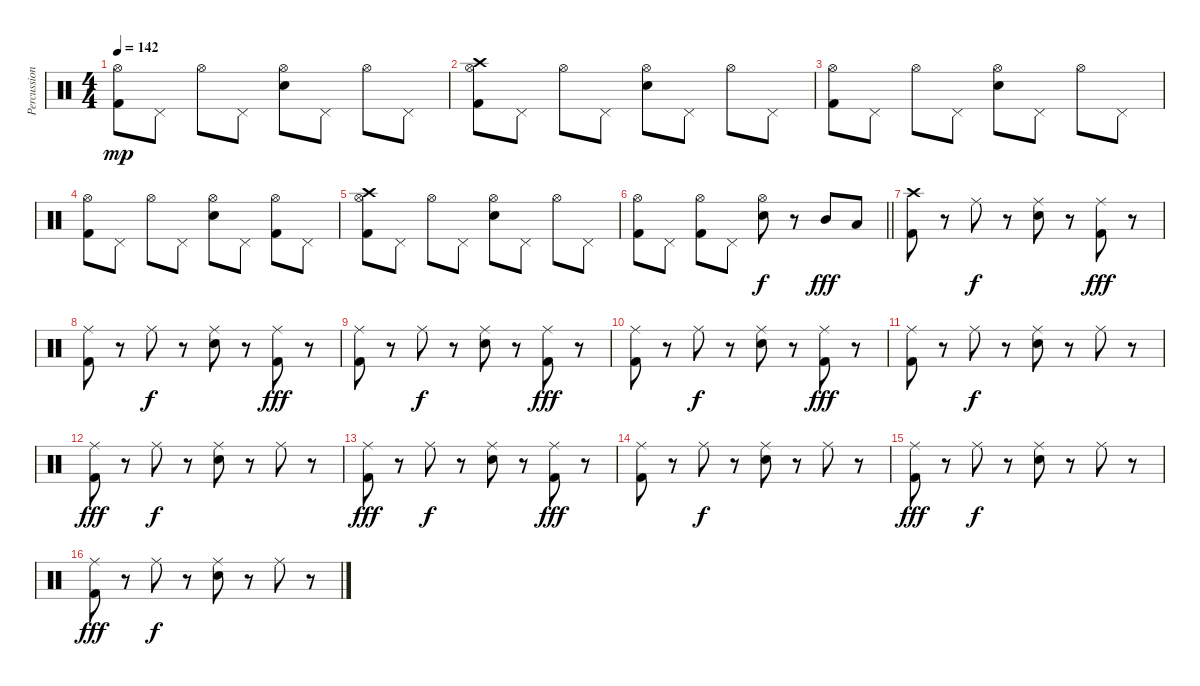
\track ("Percussion" "Percussion") {instrument percussion}
\staff {score}
\articulation defaults
\ts (4 4)
\tempo 142
\clef neutral
\ks c
("Kick (hit) 2" "Hi-Hat (open)").8{dy mp} "Pedal Hi-Hat (hit)".8 "Hi-Hat (open)".8 "Pedal Hi-Hat (hit)".8 ("Electric Snare (hit)" "Hi-Hat (open)").8 "Pedal Hi-Hat (hit)".8 "Hi-Hat (open)".8 "Pedal Hi-Hat (hit)".8 |
("Kick (hit) 2" "Hi-Hat (open)" "Crash high (hit)").8 "Pedal Hi-Hat (hit)".8 "Hi-Hat (open)".8 "Pedal Hi-Hat (hit)".8 ("Electric Snare (hit)" "Hi-Hat (open)").8 "Pedal Hi-Hat (hit)".8 "Hi-Hat (open)".8 "Pedal Hi-Hat (hit)".8 |
("Kick (hit) 2" "Hi-Hat (open)").8 "Pedal Hi-Hat (hit)".8 "Hi-Hat (open)".8 "Pedal Hi-Hat (hit)".8 ("Electric Snare (hit)" "Hi-Hat (open)").8 "Pedal Hi-Hat (hit)".8 "Hi-Hat (open)".8 "Pedal Hi-Hat (hit)".8 |
("Kick (hit) 2" "Hi-Hat (open)").8 "Pedal Hi-Hat (hit)".8 "Hi-Hat (open)".8 "Pedal Hi-Hat (hit)".8 ("Electric Snare (hit)" "Hi-Hat (open)").8 "Pedal Hi-Hat (hit)".8 ("Kick (hit) 2" "Hi-Hat (open)").8 "Pedal Hi-Hat (hit)".8 |
("Kick (hit) 2" "Hi-Hat (open)" "Crash high (hit)").8 "Pedal Hi-Hat (hit)".8 "Hi-Hat (open)".8 "Pedal Hi-Hat (hit)".8 ("Electric Snare (hit)" "Hi-Hat (open)").8 "Pedal Hi-Hat (hit)".8 "Hi-Hat (open)".8 "Pedal Hi-Hat (hit)".8 |
\barLineRight lightlight
("Kick (hit) 2" "Hi-Hat (open)").8 "Pedal Hi-Hat (hit)".8 ("Kick (hit) 2" "Hi-Hat (open)").8 "Pedal Hi-Hat (hit)".8 ("Electric Snare (hit)" "Hi-Hat (open)").8{dy f} r.8 "Mid Tom (hit)".8{dy fff} "Low Tom (hit)".8 |
("Kick (hit) 2" "Crash high (hit)").8 r.8 "Ride (middle)".8{dy f} r.8 ("Electric Snare (hit)" "Ride (middle)").8 r.8 ("Kick (hit) 2" "Ride (middle)").8{dy fff} r.8 |
("Kick (hit) 2" "Ride (middle)").8 r.8 "Ride (middle)".8{dy f} r.8 ("Electric Snare (hit)" "Ride (middle)").8 r.8 ("Kick (hit) 2" "Ride (middle)").8{dy fff} r.8 |
("Kick (hit) 2" "Ride (middle)").8 r.8 "Ride (middle)".8{dy f} r.8 ("Electric Snare (hit)" "Ride (middle)").8 r.8 ("Kick (hit) 2" "Ride (middle)").8{dy fff} r.8 |
("Kick (hit) 2" "Ride (middle)").8 r.8 "Ride (middle)".8{dy f} r.8 ("Electric Snare (hit)" "Ride (middle)").8 r.8 ("Kick (hit) 2" "Ride (middle)").8{dy fff} r.8 |
("Kick (hit) 2" "Ride (middle)").8 r.8 "Ride (middle)".8{dy f} r.8 ("Electric Snare (hit)" "Ride (middle)").8 r.8 "Ride (middle)".8 r.8 |
("Kick (hit) 2" "Ride (middle)").8{dy fff} r.8 "Ride (middle)".8{dy f} r.8 ("Electric Snare (hit)" "Ride (middle)").8 r.8 "Ride (middle)".8 r.8 |
("Kick (hit) 2" "Ride (middle)").8{dy fff} r.8 "Ride (middle)".8{dy f} r.8 ("Electric Snare (hit)" "Ride (middle)").8 r.8 ("Kick (hit) 2" "Ride (middle)").8{dy fff} r.8 |
("Kick (hit) 2" "Ride (middle)").8 r.8 "Ride (middle)".8{dy f} r.8 ("Electric Snare (hit)" "Ride (middle)").8 r.8 "Ride (middle)".8 r.8 |
("Kick (hit) 2" "Ride (middle)").8{dy fff} r.8 "Ride (middle)".8{dy f} r.8 ("Electric Snare (hit)" "Ride (middle)").8 r.8 "Ride (middle)".8 r.8 |
("Kick (hit) 2" "Ride (middle)").8{dy fff} r.8 "Ride (middle)".8{dy f} r.8 ("Electric Snare (hit)" "Ride (middle)").8 r.8 "Ride (middle)".8 r.8
